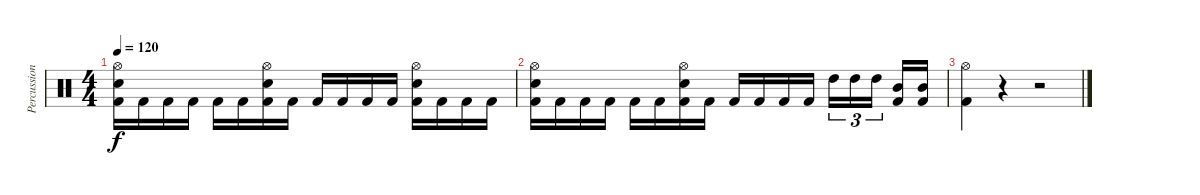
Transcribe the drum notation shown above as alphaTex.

\track ("Percussions" "Percussion") {instrument percussion}
\staff {score}
\articulation defaults
\ts (4 4)
\tempo 120
\clef neutral
\ks c
("Hi-Hat (open)" "Snare (hit) 2" "Kick (hit) 2").16{dy f} "Kick (hit) 2".16 "Kick (hit) 2".16 "Kick (hit) 2".16 "Kick (hit) 2".16 "Kick (hit) 2".16 ("Hi-Hat (open)" "Snare (hit) 2" "Kick (hit) 2").16 "Kick (hit) 2".16 "Kick (hit) 2".16 "Kick (hit) 2".16 "Kick (hit) 2".16 "Kick (hit) 2".16 ("Hi-Hat (open)" "Snare (hit) 2" "Kick (hit) 2").16 "Kick (hit) 2".16 "Kick (hit) 2".16 "Kick (hit) 2".16 |
("Hi-Hat (open)" "Snare (hit) 2" "Kick (hit) 2").16 "Kick (hit) 2".16 "Kick (hit) 2".16 "Kick (hit) 2".16 "Kick (hit) 2".16 "Kick (hit) 2".16 ("Hi-Hat (open)" "Snare (hit) 2" "Kick (hit) 2").16 "Kick (hit) 2".16 "Kick (hit) 2".16 "Kick (hit) 2".16 "Kick (hit) 2".16 "Kick (hit) 2".16 "High Tom (hit)".16{tu (3 2)} "High Tom (hit)".16{tu (3 2)} "High Tom (hit)".16{tu (3 2)} ("Mid Tom (hit)" "Kick (hit) 2").16 ("Mid Tom (hit)" "Kick (hit) 2").16 |
("Hi-Hat (open)" "Kick (hit) 2").4 r.4 r.2
